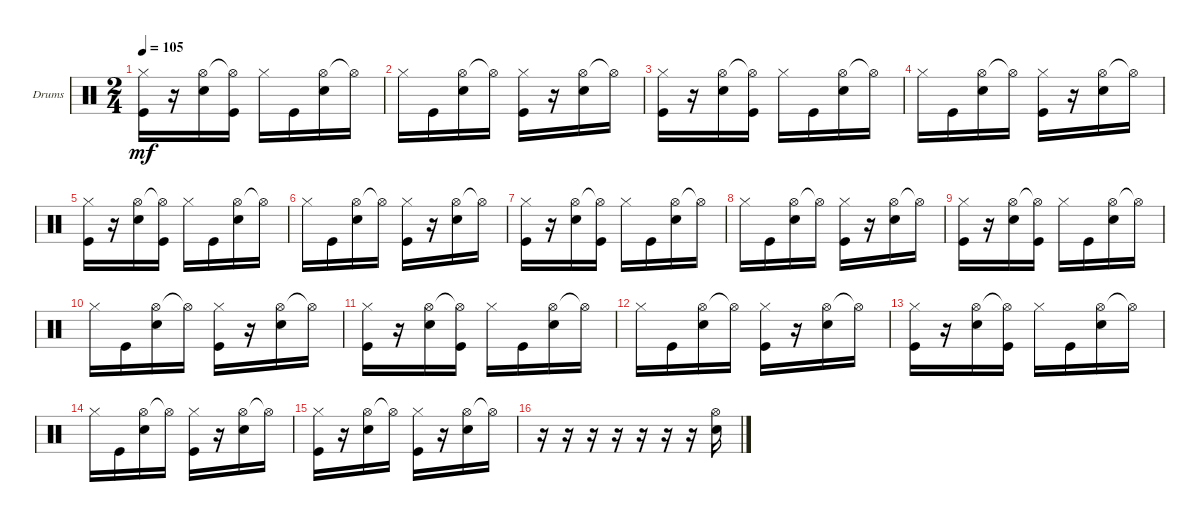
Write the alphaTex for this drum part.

\defaultSystemsLayout 4
\bracketExtendMode groupsimilarinstruments
\firstSystemTrackNameOrientation horizontal
\otherSystemsTrackNameOrientation horizontal
\track ("Godd" "Drums") {instrument percussion}
\staff {score}
\articulation defaults
\ts (2 4)
\tempo 105
\clef neutral
\ks c
("Hi-Hat (closed)" "Kick (hit)").16{dy mf} r.16 ("Hi-Hat (open)" "Snare (hit) 2").16 ("Hi-Hat (open)"{t} "Kick (hit)").16 "Hi-Hat (closed)".16 "Kick (hit)".16 ("Hi-Hat (open)" "Snare (hit) 2").16 "Hi-Hat (open)"{t}.16 |
"Hi-Hat (closed)".16 "Kick (hit)".16 ("Hi-Hat (open)" "Snare (hit) 2").16 "Hi-Hat (open)"{t}.16 ("Kick (hit)" "Hi-Hat (closed)").16 r.16 ("Hi-Hat (open)" "Snare (hit) 2").16 "Hi-Hat (open)"{t}.16 |
("Hi-Hat (closed)" "Kick (hit)").16 r.16 ("Hi-Hat (open)" "Snare (hit) 2").16 ("Hi-Hat (open)"{t} "Kick (hit)").16 "Hi-Hat (closed)".16 "Kick (hit)".16 ("Hi-Hat (open)" "Snare (hit) 2").16 "Hi-Hat (open)"{t}.16 |
"Hi-Hat (closed)".16 "Kick (hit)".16 ("Hi-Hat (open)" "Snare (hit) 2").16 "Hi-Hat (open)"{t}.16 ("Kick (hit)" "Hi-Hat (closed)").16 r.16 ("Hi-Hat (open)" "Snare (hit) 2").16 "Hi-Hat (open)"{t}.16 |
("Hi-Hat (closed)" "Kick (hit)").16 r.16 ("Hi-Hat (open)" "Snare (hit) 2").16 ("Hi-Hat (open)"{t} "Kick (hit)").16 "Hi-Hat (closed)".16 "Kick (hit)".16 ("Hi-Hat (open)" "Snare (hit) 2").16 "Hi-Hat (open)"{t}.16 |
"Hi-Hat (closed)".16 "Kick (hit)".16 ("Hi-Hat (open)" "Snare (hit) 2").16 "Hi-Hat (open)"{t}.16 ("Kick (hit)" "Hi-Hat (closed)").16 r.16 ("Hi-Hat (open)" "Snare (hit) 2").16 "Hi-Hat (open)"{t}.16 |
("Hi-Hat (closed)" "Kick (hit)").16 r.16 ("Hi-Hat (open)" "Snare (hit) 2").16 ("Hi-Hat (open)"{t} "Kick (hit)").16 "Hi-Hat (closed)".16 "Kick (hit)".16 ("Hi-Hat (open)" "Snare (hit) 2").16 "Hi-Hat (open)"{t}.16 |
"Hi-Hat (closed)".16 "Kick (hit)".16 ("Hi-Hat (open)" "Snare (hit) 2").16 "Hi-Hat (open)"{t}.16 ("Kick (hit)" "Hi-Hat (closed)").16 r.16 ("Hi-Hat (open)" "Snare (hit) 2").16 "Hi-Hat (open)"{t}.16 |
("Hi-Hat (closed)" "Kick (hit)").16 r.16 ("Hi-Hat (open)" "Snare (hit) 2").16 ("Hi-Hat (open)"{t} "Kick (hit)").16 "Hi-Hat (closed)".16 "Kick (hit)".16 ("Hi-Hat (open)" "Snare (hit) 2").16 "Hi-Hat (open)"{t}.16 |
"Hi-Hat (closed)".16 "Kick (hit)".16 ("Hi-Hat (open)" "Snare (hit) 2").16 "Hi-Hat (open)"{t}.16 ("Kick (hit)" "Hi-Hat (closed)").16 r.16 ("Hi-Hat (open)" "Snare (hit) 2").16 "Hi-Hat (open)"{t}.16 |
("Hi-Hat (closed)" "Kick (hit)").16 r.16 ("Hi-Hat (open)" "Snare (hit) 2").16 ("Hi-Hat (open)"{t} "Kick (hit)").16 "Hi-Hat (closed)".16 "Kick (hit)".16 ("Hi-Hat (open)" "Snare (hit) 2").16 "Hi-Hat (open)"{t}.16 |
"Hi-Hat (closed)".16 "Kick (hit)".16 ("Hi-Hat (open)" "Snare (hit) 2").16 "Hi-Hat (open)"{t}.16 ("Kick (hit)" "Hi-Hat (closed)").16 r.16 ("Hi-Hat (open)" "Snare (hit) 2").16 "Hi-Hat (open)"{t}.16 |
("Hi-Hat (closed)" "Kick (hit)").16 r.16 ("Hi-Hat (open)" "Snare (hit) 2").16 ("Hi-Hat (open)"{t} "Kick (hit)").16 "Hi-Hat (closed)".16 "Kick (hit)".16 ("Hi-Hat (open)" "Snare (hit) 2").16 "Hi-Hat (open)"{t}.16 |
"Hi-Hat (closed)".16 "Kick (hit)".16 ("Hi-Hat (open)" "Snare (hit) 2").16 "Hi-Hat (open)"{t}.16 ("Kick (hit)" "Hi-Hat (closed)").16 r.16 ("Hi-Hat (open)" "Snare (hit) 2").16 "Hi-Hat (open)"{t}.16 |
("Hi-Hat (closed)" "Kick (hit)").16 r.16 ("Hi-Hat (open)" "Snare (hit) 2").16 "Hi-Hat (open)"{t}.16 ("Hi-Hat (closed)" "Kick (hit)").16 r.16 ("Hi-Hat (open)" "Snare (hit) 2").16 "Hi-Hat (open)"{t}.16 |
r.16 r.16 r.16 r.16 r.16 r.16 r.16 ("Snare (hit) 2" "Hi-Hat (open)").16
